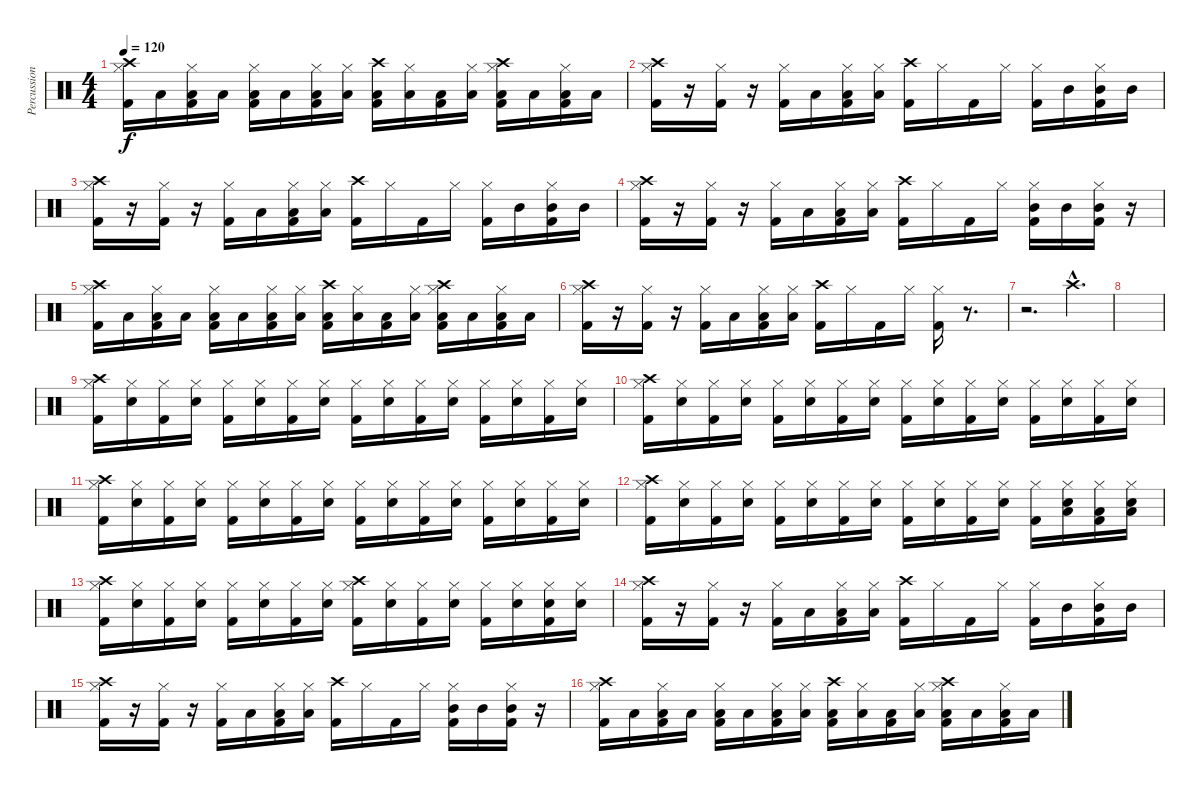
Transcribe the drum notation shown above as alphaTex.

\track ("Percussion" "Percussion") {instrument percussion}
\staff {score}
\articulation defaults
\ts (4 4)
\tempo 120
\clef neutral
\ks c
("Hi-Hat (closed)" "Kick (hit) 2" "Crash high (hit)").16{dy f} "Low Floor Tom (hit)".16 ("Hi-Hat (closed)" "Kick (hit) 2" "Low Floor Tom (hit)").16 "Low Floor Tom (hit)".16 ("Hi-Hat (closed)" "Kick (hit) 2" "Low Floor Tom (hit)").16 "Low Floor Tom (hit)".16 ("Hi-Hat (closed)" "Kick (hit) 2" "Low Floor Tom (hit)").16 ("Hi-Hat (closed)" "Low Floor Tom (hit)").16 ("Kick (hit) 2" "Low Floor Tom (hit)" "Crash high (hit)").16 ("Hi-Hat (closed)" "Low Floor Tom (hit)").16 ("Kick (hit) 2" "Low Floor Tom (hit)").16 ("Hi-Hat (closed)" "Low Floor Tom (hit)").16 ("Hi-Hat (closed)" "Kick (hit) 2" "Low Floor Tom (hit)" "Crash high (hit)").16 "Low Floor Tom (hit)".16 ("Hi-Hat (closed)" "Kick (hit) 2" "Low Floor Tom (hit)").16 "Low Floor Tom (hit)".16 |
("Hi-Hat (closed)" "Kick (hit) 2" "Crash high (hit)").16 r.16 ("Hi-Hat (closed)" "Kick (hit) 2").16 r.16 ("Hi-Hat (closed)" "Kick (hit) 2").16 "Low Floor Tom (hit)".16 ("Hi-Hat (closed)" "Kick (hit) 2" "Low Floor Tom (hit)").16 ("Hi-Hat (closed)" "Low Floor Tom (hit)").16 ("Kick (hit) 2" "Crash high (hit)").16 "Hi-Hat (closed)".16 "Kick (hit) 2".16 "Hi-Hat (closed)".16 ("Hi-Hat (closed)" "Kick (hit) 2").16 "Mid Tom (hit)".16 ("Hi-Hat (closed)" "Kick (hit) 2" "Mid Tom (hit)").16 "Mid Tom (hit)".16 |
("Hi-Hat (closed)" "Kick (hit) 2" "Crash high (hit)").16 r.16 ("Hi-Hat (closed)" "Kick (hit) 2").16 r.16 ("Hi-Hat (closed)" "Kick (hit) 2").16 "Low Floor Tom (hit)".16 ("Hi-Hat (closed)" "Kick (hit) 2" "Low Floor Tom (hit)").16 ("Hi-Hat (closed)" "Low Floor Tom (hit)").16 ("Kick (hit) 2" "Crash high (hit)").16 "Hi-Hat (closed)".16 "Kick (hit) 2".16 "Hi-Hat (closed)".16 ("Hi-Hat (closed)" "Kick (hit) 2").16 "Mid Tom (hit)".16 ("Hi-Hat (closed)" "Kick (hit) 2" "Mid Tom (hit)").16 "Mid Tom (hit)".16 |
("Hi-Hat (closed)" "Kick (hit) 2" "Crash high (hit)").16 r.16 ("Hi-Hat (closed)" "Kick (hit) 2").16 r.16 ("Hi-Hat (closed)" "Kick (hit) 2").16 "Low Floor Tom (hit)".16 ("Hi-Hat (closed)" "Kick (hit) 2" "Low Floor Tom (hit)").16 ("Hi-Hat (closed)" "Low Floor Tom (hit)").16 ("Kick (hit) 2" "Crash high (hit)").16 "Hi-Hat (closed)".16 "Kick (hit) 2".16 "Hi-Hat (closed)".16 ("Hi-Hat (closed)" "Kick (hit) 2" "Mid Tom (hit)").16 "Mid Tom (hit)".16 ("Hi-Hat (closed)" "Kick (hit) 2" "Mid Tom (hit)").16 r.16 |
("Hi-Hat (closed)" "Kick (hit) 2" "Crash high (hit)").16 "Low Floor Tom (hit)".16 ("Hi-Hat (closed)" "Kick (hit) 2" "Low Floor Tom (hit)").16 "Low Floor Tom (hit)".16 ("Hi-Hat (closed)" "Kick (hit) 2" "Low Floor Tom (hit)").16 "Low Floor Tom (hit)".16 ("Hi-Hat (closed)" "Kick (hit) 2" "Low Floor Tom (hit)").16 ("Hi-Hat (closed)" "Low Floor Tom (hit)").16 ("Kick (hit) 2" "Low Floor Tom (hit)" "Crash high (hit)").16 ("Hi-Hat (closed)" "Low Floor Tom (hit)").16 ("Kick (hit) 2" "Low Floor Tom (hit)").16 ("Hi-Hat (closed)" "Low Floor Tom (hit)").16 ("Hi-Hat (closed)" "Kick (hit) 2" "Low Floor Tom (hit)" "Crash high (hit)").16 "Low Floor Tom (hit)".16 ("Hi-Hat (closed)" "Kick (hit) 2" "Low Floor Tom (hit)").16 "Low Floor Tom (hit)".16 |
("Hi-Hat (closed)" "Kick (hit) 2" "Crash high (hit)").16 r.16 ("Hi-Hat (closed)" "Kick (hit) 2").16 r.16 ("Hi-Hat (closed)" "Kick (hit) 2").16 "Low Floor Tom (hit)".16 ("Hi-Hat (closed)" "Kick (hit) 2" "Low Floor Tom (hit)").16 ("Hi-Hat (closed)" "Low Floor Tom (hit)").16 ("Kick (hit) 2" "Crash high (hit)").16 "Hi-Hat (closed)".16 "Kick (hit) 2".16 "Hi-Hat (closed)".16 ("Hi-Hat (closed)" "Kick (hit) 2").16 r.8{d} |
r.2{d} "Crash high (hit)"{hac}.4{d} |
|
("Hi-Hat (closed)" "Kick (hit) 2" "Crash high (hit)").16 ("Hi-Hat (closed)" "Snare (hit) 2").16 ("Hi-Hat (closed)" "Kick (hit) 2").16 ("Hi-Hat (closed)" "Snare (hit) 2").16 ("Hi-Hat (closed)" "Kick (hit) 2").16 ("Hi-Hat (closed)" "Snare (hit) 2").16 ("Hi-Hat (closed)" "Kick (hit) 2").16 ("Hi-Hat (closed)" "Snare (hit) 2").16 ("Hi-Hat (closed)" "Kick (hit) 2").16 ("Hi-Hat (closed)" "Snare (hit) 2").16 ("Hi-Hat (closed)" "Kick (hit) 2").16 ("Hi-Hat (closed)" "Snare (hit) 2").16 ("Hi-Hat (closed)" "Kick (hit) 2").16 ("Hi-Hat (closed)" "Snare (hit) 2").16 ("Hi-Hat (closed)" "Kick (hit) 2").16 ("Hi-Hat (closed)" "Snare (hit) 2").16 |
("Hi-Hat (closed)" "Kick (hit) 2" "Crash high (hit)").16 ("Hi-Hat (closed)" "Snare (hit) 2").16 ("Hi-Hat (closed)" "Kick (hit) 2").16 ("Hi-Hat (closed)" "Snare (hit) 2").16 ("Hi-Hat (closed)" "Kick (hit) 2").16 ("Hi-Hat (closed)" "Snare (hit) 2").16 ("Hi-Hat (closed)" "Kick (hit) 2").16 ("Hi-Hat (closed)" "Snare (hit) 2").16 ("Hi-Hat (closed)" "Kick (hit) 2").16 ("Hi-Hat (closed)" "Snare (hit) 2").16 ("Hi-Hat (closed)" "Kick (hit) 2").16 ("Hi-Hat (closed)" "Snare (hit) 2").16 ("Hi-Hat (closed)" "Kick (hit) 2").16 ("Hi-Hat (closed)" "Snare (hit) 2").16 ("Hi-Hat (closed)" "Kick (hit) 2").16 ("Hi-Hat (closed)" "Snare (hit) 2").16 |
("Hi-Hat (closed)" "Kick (hit) 2" "Crash high (hit)").16 ("Hi-Hat (closed)" "Snare (hit) 2").16 ("Hi-Hat (closed)" "Kick (hit) 2").16 ("Hi-Hat (closed)" "Snare (hit) 2").16 ("Hi-Hat (closed)" "Kick (hit) 2").16 ("Hi-Hat (closed)" "Snare (hit) 2").16 ("Hi-Hat (closed)" "Kick (hit) 2").16 ("Hi-Hat (closed)" "Snare (hit) 2").16 ("Hi-Hat (closed)" "Kick (hit) 2").16 ("Hi-Hat (closed)" "Snare (hit) 2").16 ("Hi-Hat (closed)" "Kick (hit) 2").16 ("Hi-Hat (closed)" "Snare (hit) 2").16 ("Hi-Hat (closed)" "Kick (hit) 2").16 ("Hi-Hat (closed)" "Snare (hit) 2").16 ("Hi-Hat (closed)" "Kick (hit) 2").16 ("Hi-Hat (closed)" "Snare (hit) 2").16 |
("Hi-Hat (closed)" "Kick (hit) 2" "Crash high (hit)").16 ("Hi-Hat (closed)" "Snare (hit) 2").16 ("Hi-Hat (closed)" "Kick (hit) 2").16 ("Hi-Hat (closed)" "Snare (hit) 2").16 ("Hi-Hat (closed)" "Kick (hit) 2").16 ("Hi-Hat (closed)" "Snare (hit) 2").16 ("Hi-Hat (closed)" "Kick (hit) 2").16 ("Hi-Hat (closed)" "Snare (hit) 2").16 ("Hi-Hat (closed)" "Kick (hit) 2").16 ("Hi-Hat (closed)" "Snare (hit) 2").16 ("Hi-Hat (closed)" "Kick (hit) 2").16 ("Hi-Hat (closed)" "Snare (hit) 2").16 ("Hi-Hat (closed)" "Kick (hit) 2").16 ("Hi-Hat (closed)" "Snare (hit) 2" "Low Floor Tom (hit)").16 ("Hi-Hat (closed)" "Kick (hit) 2" "Low Floor Tom (hit)").16 ("Hi-Hat (closed)" "Snare (hit) 2" "Low Floor Tom (hit)").16 |
("Hi-Hat (closed)" "Kick (hit) 2" "Crash high (hit)").16 ("Hi-Hat (closed)" "Snare (hit) 2").16 ("Hi-Hat (closed)" "Kick (hit) 2").16 ("Hi-Hat (closed)" "Snare (hit) 2").16 ("Hi-Hat (closed)" "Kick (hit) 2").16 ("Hi-Hat (closed)" "Snare (hit) 2").16 ("Hi-Hat (closed)" "Kick (hit) 2").16 ("Hi-Hat (closed)" "Snare (hit) 2").16 ("Hi-Hat (closed)" "Kick (hit) 2" "Crash high (hit)").16 ("Hi-Hat (closed)" "Snare (hit) 2").16 ("Hi-Hat (closed)" "Kick (hit) 2").16 ("Hi-Hat (closed)" "Snare (hit) 2").16 ("Hi-Hat (closed)" "Kick (hit) 2").16 ("Hi-Hat (closed)" "Snare (hit) 2").16 ("Hi-Hat (closed)" "Kick (hit) 2" "Snare (hit) 2").16 ("Hi-Hat (closed)" "Snare (hit) 2").16 |
("Hi-Hat (closed)" "Kick (hit) 2" "Crash high (hit)").16 r.16 ("Hi-Hat (closed)" "Kick (hit) 2").16 r.16 ("Hi-Hat (closed)" "Kick (hit) 2").16 "Low Floor Tom (hit)".16 ("Hi-Hat (closed)" "Kick (hit) 2" "Low Floor Tom (hit)").16 ("Hi-Hat (closed)" "Low Floor Tom (hit)").16 ("Kick (hit) 2" "Crash high (hit)").16 "Hi-Hat (closed)".16 "Kick (hit) 2".16 "Hi-Hat (closed)".16 ("Hi-Hat (closed)" "Kick (hit) 2").16 "Mid Tom (hit)".16 ("Hi-Hat (closed)" "Kick (hit) 2" "Mid Tom (hit)").16 "Mid Tom (hit)".16 |
("Hi-Hat (closed)" "Kick (hit) 2" "Crash high (hit)").16 r.16 ("Hi-Hat (closed)" "Kick (hit) 2").16 r.16 ("Hi-Hat (closed)" "Kick (hit) 2").16 "Low Floor Tom (hit)".16 ("Hi-Hat (closed)" "Kick (hit) 2" "Low Floor Tom (hit)").16 ("Hi-Hat (closed)" "Low Floor Tom (hit)").16 ("Kick (hit) 2" "Crash high (hit)").16 "Hi-Hat (closed)".16 "Kick (hit) 2".16 "Hi-Hat (closed)".16 ("Hi-Hat (closed)" "Kick (hit) 2" "Mid Tom (hit)").16 "Mid Tom (hit)".16 ("Hi-Hat (closed)" "Kick (hit) 2" "Mid Tom (hit)").16 r.16 |
("Hi-Hat (closed)" "Kick (hit) 2" "Crash high (hit)").16 "Low Floor Tom (hit)".16 ("Hi-Hat (closed)" "Kick (hit) 2" "Low Floor Tom (hit)").16 "Low Floor Tom (hit)".16 ("Hi-Hat (closed)" "Kick (hit) 2" "Low Floor Tom (hit)").16 "Low Floor Tom (hit)".16 ("Hi-Hat (closed)" "Kick (hit) 2" "Low Floor Tom (hit)").16 ("Hi-Hat (closed)" "Low Floor Tom (hit)").16 ("Kick (hit) 2" "Low Floor Tom (hit)" "Crash high (hit)").16 ("Hi-Hat (closed)" "Low Floor Tom (hit)").16 ("Kick (hit) 2" "Low Floor Tom (hit)").16 ("Hi-Hat (closed)" "Low Floor Tom (hit)").16 ("Hi-Hat (closed)" "Kick (hit) 2" "Low Floor Tom (hit)" "Crash high (hit)").16 "Low Floor Tom (hit)".16 ("Hi-Hat (closed)" "Kick (hit) 2" "Low Floor Tom (hit)").16 "Low Floor Tom (hit)".16
